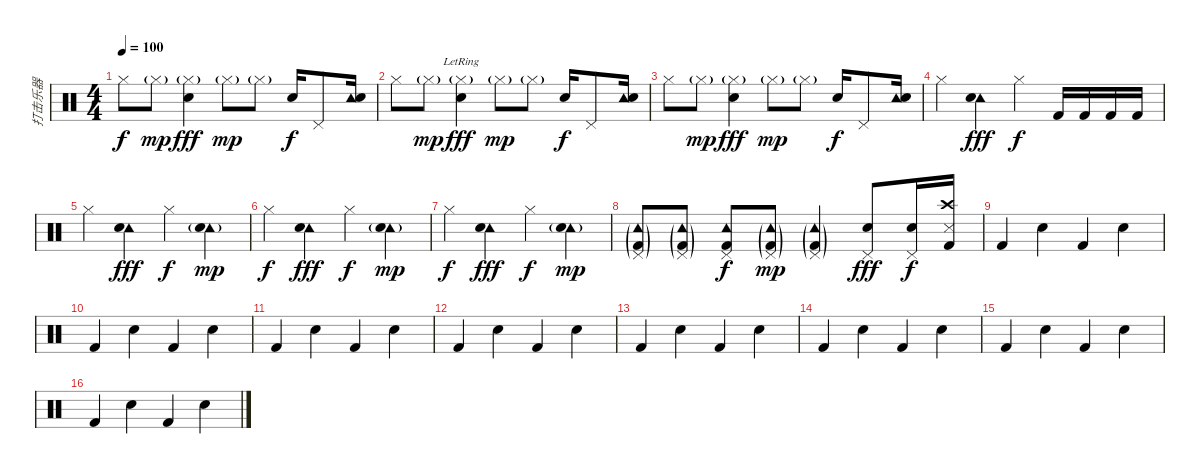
\track ("打击乐器" "打击乐器") {instrument percussion}
\staff {score}
\articulation defaults
\ts (4 4)
\tempo 100
\clef neutral
\ks c "Hi-Hat (closed)".8{dy f} "Hi-Hat (closed)"{g}.8{dy mp}
("Hi-Hat (closed)"{g} "Snare (hit) 2").4{dy fff} "Hi-Hat (closed)"{g}.8{dy mp} "Hi-Hat (closed)"{g}.8 "Electric Snare (hit)".16{dy f} "Pedal Hi-Hat (hit)".8 ("Tambourine (hit)" "Electric Snare (hit)").16 |
"Hi-Hat (closed)".8 "Hi-Hat (closed)"{g}.8{dy mp} ("Hi-Hat (closed)"{g} "Snare (hit) 2"{lr}).4{dy fff} "Hi-Hat (closed)"{g}.8{dy mp} "Hi-Hat (closed)"{g}.8 "Electric Snare (hit)".16{dy f} "Pedal Hi-Hat (hit)".8 ("Tambourine (hit)" "Electric Snare (hit)").16 |
"Hi-Hat (closed)".8 "Hi-Hat (closed)"{g}.8{dy mp} ("Hi-Hat (closed)"{g} "Snare (hit) 2").4{dy fff} "Hi-Hat (closed)"{g}.8{dy mp} "Hi-Hat (closed)"{g}.8 "Electric Snare (hit)".16{dy f} "Pedal Hi-Hat (hit)".8 ("Tambourine (hit)" "Electric Snare (hit)").16 |
"Hi-Hat (closed)".4 ("Tambourine (hit)" "Snare (hit) 2").4{dy fff} "Hi-Hat (closed)".4{dy f} "Kick (hit) 2".16 "Kick (hit) 2".16 "Kick (hit) 2".16 "Kick (hit) 2".16 |
"Hi-Hat (closed)".4 ("Tambourine (hit)" "Snare (hit) 2").4{dy fff} "Hi-Hat (closed)".4{dy f} ("Tambourine (hit)" "Snare (hit) 2"{g}).4{dy mp} |
"Hi-Hat (closed)".4{dy f} ("Tambourine (hit)" "Snare (hit) 2").4{dy fff} "Hi-Hat (closed)".4{dy f} ("Tambourine (hit)" "Snare (hit) 2"{g}).4{dy mp} |
"Hi-Hat (closed)".4{dy f} ("Tambourine (hit)" "Snare (hit) 2").4{dy fff} "Hi-Hat (closed)".4{dy f} ("Tambourine (hit)" "Snare (hit) 2"{g}).4{dy mp} |
("Kick (hit) 2"{g} "Tambourine (hit)"{g} "Pedal Hi-Hat (hit)"{g}).8 ("Kick (hit) 2"{g} "Tambourine (hit)"{g} "Pedal Hi-Hat (hit)"{g}).8 ("Kick (hit) 2" "Tambourine (hit)" "Pedal Hi-Hat (hit)").8{dy f} ("Kick (hit) 2"{g} "Tambourine (hit)"{g} "Pedal Hi-Hat (hit)"{g}).8{dy mp} ("Kick (hit) 2"{g} "Tambourine (hit)"{g} "Pedal Hi-Hat (hit)"{g}).4 ("Pedal Hi-Hat (hit)" "Snare (hit) 2").8{dy fff} ("Pedal Hi-Hat (hit)" "Snare (hit) 2").16{dy f} ("Kick (hit) 2" "Crash high (hit)" "Snare (side stick) 3").16 |
"Kick (hit) 2".4 "Snare (hit) 2".4 "Kick (hit) 2".4 "Snare (hit) 2".4 |
"Kick (hit) 2".4 "Snare (hit) 2".4 "Kick (hit) 2".4 "Snare (hit) 2".4 |
"Kick (hit) 2".4 "Snare (hit) 2".4 "Kick (hit) 2".4 "Snare (hit) 2".4 |
"Kick (hit) 2".4 "Snare (hit) 2".4 "Kick (hit) 2".4 "Snare (hit) 2".4 |
"Kick (hit) 2".4 "Snare (hit) 2".4 "Kick (hit) 2".4 "Snare (hit) 2".4 |
"Kick (hit) 2".4 "Snare (hit) 2".4 "Kick (hit) 2".4 "Snare (hit) 2".4 |
"Kick (hit) 2".4 "Snare (hit) 2".4 "Kick (hit) 2".4 "Snare (hit) 2".4 |
"Kick (hit) 2".4 "Snare (hit) 2".4 "Kick (hit) 2".4 "Snare (hit) 2".4
